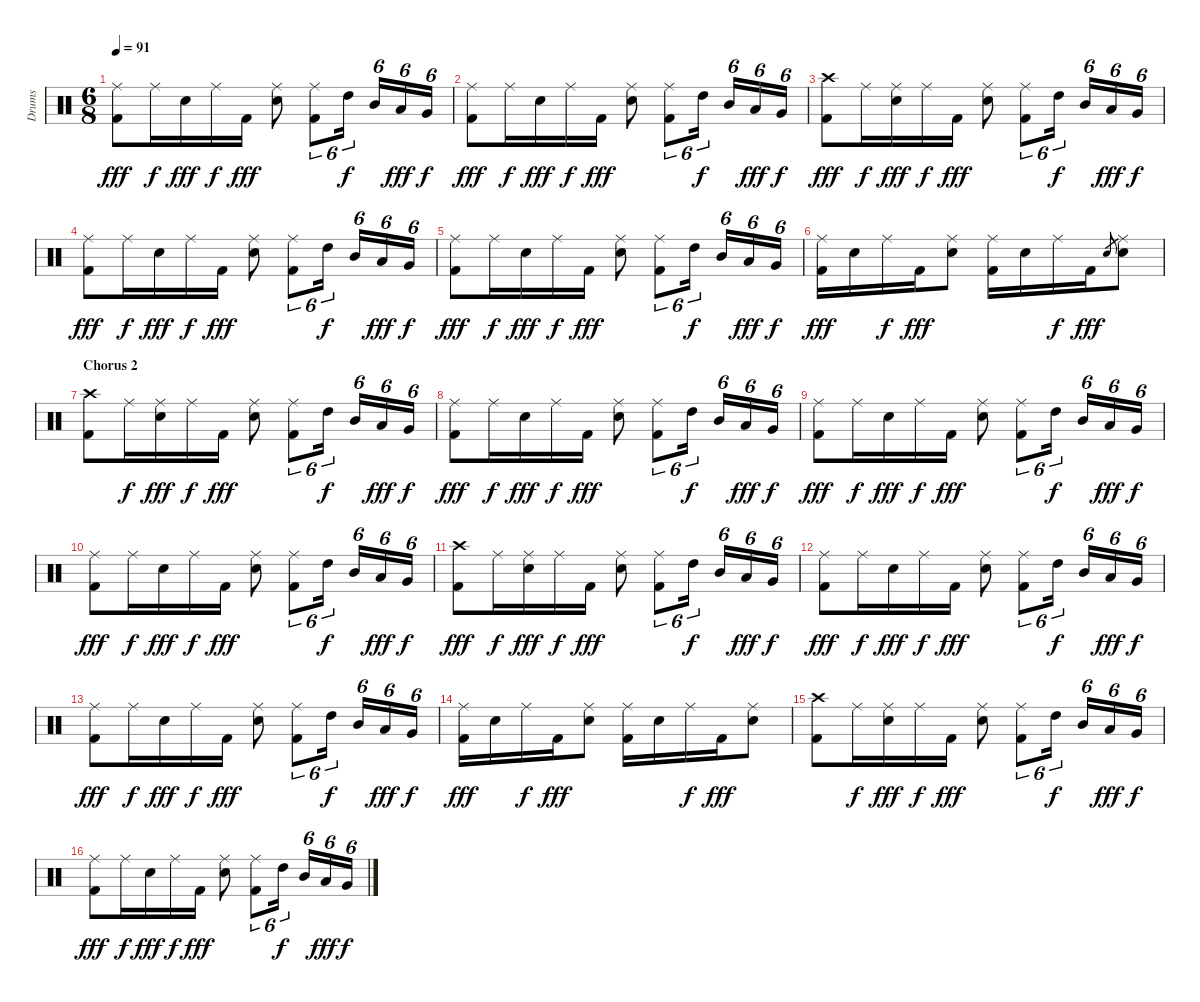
\track ("Drums" "Drums") {instrument percussion}
\staff {score}
\articulation defaults
\ts (6 8)
\tempo 91
\clef neutral
\ks c
("Ride (middle)" "Kick (hit) 2").8{dy fff} "Ride (middle)".16{dy f} "Electric Snare (hit)".16{dy fff} "Ride (middle)".16{dy f} "Kick (hit) 2".16{dy fff} ("Ride (middle)" "Electric Snare (hit)").8 ("Ride (middle)" "Kick (hit) 2").8{tu (6 4)} "High Tom (hit)".16{tu (6 4) dy f} "Mid Tom (hit)".16{tu (6 4)} "Low Tom (hit)".16{tu (6 4) dy fff} "Very Low Tom (hit)".16{tu (6 4) dy f} |
("Ride (middle)" "Kick (hit) 2").8{dy fff} "Ride (middle)".16{dy f} "Electric Snare (hit)".16{dy fff} "Ride (middle)".16{dy f} "Kick (hit) 2".16{dy fff} ("Ride (middle)" "Electric Snare (hit)").8 ("Ride (middle)" "Kick (hit) 2").8{tu (6 4)} "High Tom (hit)".16{tu (6 4) dy f} "Mid Tom (hit)".16{tu (6 4)} "Low Tom (hit)".16{tu (6 4) dy fff} "Very Low Tom (hit)".16{tu (6 4) dy f} |
("Crash high (hit)" "Kick (hit) 2").8{dy fff} "Ride (middle)".16{dy f} ("Ride (middle)" "Electric Snare (hit)").16{dy fff} "Ride (middle)".16{dy f} "Kick (hit) 2".16{dy fff} ("Ride (middle)" "Electric Snare (hit)").8 ("Ride (middle)" "Kick (hit) 2").8{tu (6 4)} "High Tom (hit)".16{tu (6 4) dy f} "Mid Tom (hit)".16{tu (6 4)} "Low Tom (hit)".16{tu (6 4) dy fff} "Very Low Tom (hit)".16{tu (6 4) dy f} |
("Ride (middle)" "Kick (hit) 2").8{dy fff} "Ride (middle)".16{dy f} "Electric Snare (hit)".16{dy fff} "Ride (middle)".16{dy f} "Kick (hit) 2".16{dy fff} ("Ride (middle)" "Electric Snare (hit)").8 ("Ride (middle)" "Kick (hit) 2").8{tu (6 4)} "High Tom (hit)".16{tu (6 4) dy f} "Mid Tom (hit)".16{tu (6 4)} "Low Tom (hit)".16{tu (6 4) dy fff} "Very Low Tom (hit)".16{tu (6 4) dy f} |
("Ride (middle)" "Kick (hit) 2").8{dy fff} "Ride (middle)".16{dy f} "Electric Snare (hit)".16{dy fff} "Ride (middle)".16{dy f} "Kick (hit) 2".16{dy fff} ("Ride (middle)" "Electric Snare (hit)").8 ("Ride (middle)" "Kick (hit) 2").8{tu (6 4)} "High Tom (hit)".16{tu (6 4) dy f} "Mid Tom (hit)".16{tu (6 4)} "Low Tom (hit)".16{tu (6 4) dy fff} "Very Low Tom (hit)".16{tu (6 4) dy f} |
("Ride (middle)" "Kick (hit) 2").16{dy fff} "Electric Snare (hit)".16 "Ride (middle)".16{dy f} "Kick (hit) 2".16{dy fff} ("Ride (middle)" "Electric Snare (hit)").8 ("Ride (middle)" "Kick (hit) 2").16 "Electric Snare (hit)".16 "Ride (middle)".16{dy f} "Kick (hit) 2".16{dy fff} "Electric Snare (hit)".8{gr} ("Ride (middle)" "Electric Snare (hit)").8 |
\section ("" "Chorus 2")
("Crash high (hit)" "Kick (hit) 2").8 "Ride (middle)".16{dy f} ("Ride (middle)" "Electric Snare (hit)").16{dy fff} "Ride (middle)".16{dy f} "Kick (hit) 2".16{dy fff} ("Ride (middle)" "Electric Snare (hit)").8 ("Ride (middle)" "Kick (hit) 2").8{tu (6 4)} "High Tom (hit)".16{tu (6 4) dy f} "Mid Tom (hit)".16{tu (6 4)} "Low Tom (hit)".16{tu (6 4) dy fff} "Very Low Tom (hit)".16{tu (6 4) dy f} |
("Ride (middle)" "Kick (hit) 2").8{dy fff} "Ride (middle)".16{dy f} "Electric Snare (hit)".16{dy fff} "Ride (middle)".16{dy f} "Kick (hit) 2".16{dy fff} ("Ride (middle)" "Electric Snare (hit)").8 ("Ride (middle)" "Kick (hit) 2").8{tu (6 4)} "High Tom (hit)".16{tu (6 4) dy f} "Mid Tom (hit)".16{tu (6 4)} "Low Tom (hit)".16{tu (6 4) dy fff} "Very Low Tom (hit)".16{tu (6 4) dy f} |
("Ride (middle)" "Kick (hit) 2").8{dy fff} "Ride (middle)".16{dy f} "Electric Snare (hit)".16{dy fff} "Ride (middle)".16{dy f} "Kick (hit) 2".16{dy fff} ("Ride (middle)" "Electric Snare (hit)").8 ("Ride (middle)" "Kick (hit) 2").8{tu (6 4)} "High Tom (hit)".16{tu (6 4) dy f} "Mid Tom (hit)".16{tu (6 4)} "Low Tom (hit)".16{tu (6 4) dy fff} "Very Low Tom (hit)".16{tu (6 4) dy f} |
("Ride (middle)" "Kick (hit) 2").8{dy fff} "Ride (middle)".16{dy f} "Electric Snare (hit)".16{dy fff} "Ride (middle)".16{dy f} "Kick (hit) 2".16{dy fff} ("Ride (middle)" "Electric Snare (hit)").8 ("Ride (middle)" "Kick (hit) 2").8{tu (6 4)} "High Tom (hit)".16{tu (6 4) dy f} "Mid Tom (hit)".16{tu (6 4)} "Low Tom (hit)".16{tu (6 4) dy fff} "Very Low Tom (hit)".16{tu (6 4) dy f} |
("Crash high (hit)" "Kick (hit) 2").8{dy fff} "Ride (middle)".16{dy f} ("Ride (middle)" "Electric Snare (hit)").16{dy fff} "Ride (middle)".16{dy f} "Kick (hit) 2".16{dy fff} ("Ride (middle)" "Electric Snare (hit)").8 ("Ride (middle)" "Kick (hit) 2").8{tu (6 4)} "High Tom (hit)".16{tu (6 4) dy f} "Mid Tom (hit)".16{tu (6 4)} "Low Tom (hit)".16{tu (6 4) dy fff} "Very Low Tom (hit)".16{tu (6 4) dy f} |
("Ride (middle)" "Kick (hit) 2").8{dy fff} "Ride (middle)".16{dy f} "Electric Snare (hit)".16{dy fff} "Ride (middle)".16{dy f} "Kick (hit) 2".16{dy fff} ("Ride (middle)" "Electric Snare (hit)").8 ("Ride (middle)" "Kick (hit) 2").8{tu (6 4)} "High Tom (hit)".16{tu (6 4) dy f} "Mid Tom (hit)".16{tu (6 4)} "Low Tom (hit)".16{tu (6 4) dy fff} "Very Low Tom (hit)".16{tu (6 4) dy f} |
("Ride (middle)" "Kick (hit) 2").8{dy fff} "Ride (middle)".16{dy f} "Electric Snare (hit)".16{dy fff} "Ride (middle)".16{dy f} "Kick (hit) 2".16{dy fff} ("Ride (middle)" "Electric Snare (hit)").8 ("Ride (middle)" "Kick (hit) 2").8{tu (6 4)} "High Tom (hit)".16{tu (6 4) dy f} "Mid Tom (hit)".16{tu (6 4)} "Low Tom (hit)".16{tu (6 4) dy fff} "Very Low Tom (hit)".16{tu (6 4) dy f} |
("Ride (middle)" "Kick (hit) 2").16{dy fff} "Electric Snare (hit)".16 "Ride (middle)".16{dy f} "Kick (hit) 2".16{dy fff} ("Ride (middle)" "Electric Snare (hit)").8 ("Ride (middle)" "Kick (hit) 2").16 "Electric Snare (hit)".16 "Ride (middle)".16{dy f} "Kick (hit) 2".16{dy fff} ("Ride (middle)" "Electric Snare (hit)").8 |
("Crash high (hit)" "Kick (hit) 2").8 "Ride (middle)".16{dy f} ("Ride (middle)" "Electric Snare (hit)").16{dy fff} "Ride (middle)".16{dy f} "Kick (hit) 2".16{dy fff} ("Ride (middle)" "Electric Snare (hit)").8 ("Ride (middle)" "Kick (hit) 2").8{tu (6 4)} "High Tom (hit)".16{tu (6 4) dy f} "Mid Tom (hit)".16{tu (6 4)} "Low Tom (hit)".16{tu (6 4) dy fff} "Very Low Tom (hit)".16{tu (6 4) dy f} |
("Ride (middle)" "Kick (hit) 2").8{dy fff} "Ride (middle)".16{dy f} "Electric Snare (hit)".16{dy fff} "Ride (middle)".16{dy f} "Kick (hit) 2".16{dy fff} ("Ride (middle)" "Electric Snare (hit)").8 ("Ride (middle)" "Kick (hit) 2").8{tu (6 4)} "High Tom (hit)".16{tu (6 4) dy f} "Mid Tom (hit)".16{tu (6 4)} "Low Tom (hit)".16{tu (6 4) dy fff} "Very Low Tom (hit)".16{tu (6 4) dy f}
